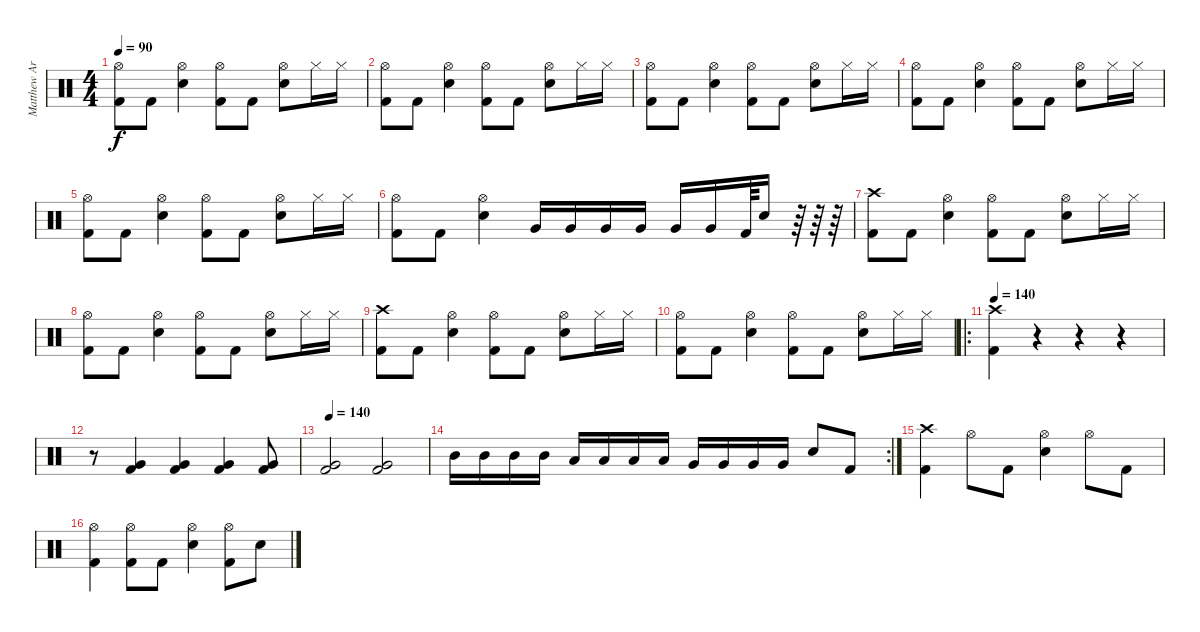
\track ("Matthew Archer" "Matthew Ar") {instrument percussion}
\staff {score}
\articulation defaults
\ts (4 4)
\tempo 90
\clef neutral
\ks c
("Hi-Hat (open)" "Kick (hit) 2").8{dy f} "Kick (hit) 2".8 ("Hi-Hat (open)" "Electric Snare (hit)").4 ("Hi-Hat (open)" "Kick (hit) 2").8 "Kick (hit) 2".8 ("Hi-Hat (open)" "Electric Snare (hit)").8 "Hi-Hat (closed)".16 "Hi-Hat (closed)".16 |
("Hi-Hat (open)" "Kick (hit) 2").8 "Kick (hit) 2".8 ("Hi-Hat (open)" "Electric Snare (hit)").4 ("Hi-Hat (open)" "Kick (hit) 2").8 "Kick (hit) 2".8 ("Hi-Hat (open)" "Electric Snare (hit)").8 "Hi-Hat (closed)".16 "Hi-Hat (closed)".16 |
("Hi-Hat (open)" "Kick (hit) 2").8 "Kick (hit) 2".8 ("Hi-Hat (open)" "Electric Snare (hit)").4 ("Hi-Hat (open)" "Kick (hit) 2").8 "Kick (hit) 2".8 ("Hi-Hat (open)" "Electric Snare (hit)").8 "Hi-Hat (closed)".16 "Hi-Hat (closed)".16 |
("Hi-Hat (open)" "Kick (hit) 2").8 "Kick (hit) 2".8 ("Hi-Hat (open)" "Electric Snare (hit)").4 ("Hi-Hat (open)" "Kick (hit) 2").8 "Kick (hit) 2".8 ("Hi-Hat (open)" "Electric Snare (hit)").8 "Hi-Hat (closed)".16 "Hi-Hat (closed)".16 |
("Hi-Hat (open)" "Kick (hit) 2").8 "Kick (hit) 2".8 ("Hi-Hat (open)" "Electric Snare (hit)").4 ("Hi-Hat (open)" "Kick (hit) 2").8 "Kick (hit) 2".8 ("Hi-Hat (open)" "Electric Snare (hit)").8 "Hi-Hat (closed)".16 "Hi-Hat (closed)".16 |
("Hi-Hat (open)" "Kick (hit) 2").8 "Kick (hit) 2".8 ("Hi-Hat (open)" "Electric Snare (hit)").4 "Very Low Tom (hit)".16 "Very Low Tom (hit)".16 "Very Low Tom (hit)".16 "Very Low Tom (hit)".16 "Very Low Tom (hit)".16 "Very Low Tom (hit)".16 "Kick (hit) 2".64 "Electric Snare (hit)".16 r.64 r.64 r.64 |
("Crash high (hit)" "Kick (hit) 2").8 "Kick (hit) 2".8 ("Hi-Hat (open)" "Electric Snare (hit)").4 ("Hi-Hat (open)" "Kick (hit) 2").8 "Kick (hit) 2".8 ("Hi-Hat (open)" "Electric Snare (hit)").8 "Hi-Hat (closed)".16 "Hi-Hat (closed)".16 |
("Hi-Hat (open)" "Kick (hit) 2").8 "Kick (hit) 2".8 ("Hi-Hat (open)" "Electric Snare (hit)").4 ("Hi-Hat (open)" "Kick (hit) 2").8 "Kick (hit) 2".8 ("Hi-Hat (open)" "Electric Snare (hit)").8 "Hi-Hat (closed)".16 "Hi-Hat (closed)".16 |
("Crash high (hit)" "Kick (hit) 2").8 "Kick (hit) 2".8 ("Hi-Hat (open)" "Electric Snare (hit)").4 ("Hi-Hat (open)" "Kick (hit) 2").8 "Kick (hit) 2".8 ("Hi-Hat (open)" "Electric Snare (hit)").8 "Hi-Hat (closed)".16 "Hi-Hat (closed)".16 |
("Hi-Hat (open)" "Kick (hit) 2").8 "Kick (hit) 2".8 ("Hi-Hat (open)" "Electric Snare (hit)").4 ("Hi-Hat (open)" "Kick (hit) 2").8 "Kick (hit) 2".8 ("Hi-Hat (open)" "Electric Snare (hit)").8 "Hi-Hat (closed)".16 "Hi-Hat (closed)".16 |
\ro
\tempo 140
("Crash high (hit)" "Kick (hit) 2").4 r.4 r.4 r.4 |
r.8 ("Very Low Tom (hit)" "Kick (hit) 2").4 ("Very Low Tom (hit)" "Kick (hit) 2").4 ("Very Low Tom (hit)" "Kick (hit) 2").4 ("Very Low Tom (hit)" "Kick (hit) 2").8 |
\tempo 140
("Very Low Tom (hit)" "Kick (hit) 2").2 ("Very Low Tom (hit)" "Kick (hit) 2").2 |
\rc 2 "Mid Tom (hit)".16 "Mid Tom (hit)".16 "Mid Tom (hit)".16 "Mid Tom (hit)".16 "Low Tom (hit)".16 "Low Tom (hit)".16 "Low Tom (hit)".16 "Low Tom (hit)".16 "Very Low Tom (hit)".16 "Very Low Tom (hit)".16 "Very Low Tom (hit)".16 "Very Low Tom (hit)".16 "Electric Snare (hit)".8 "Kick (hit) 2".8
|
("Kick (hit) 2" "Crash high (hit)").4 "Hi-Hat (open)".8 "Kick (hit) 2".8 ("Hi-Hat (open)" "Electric Snare (hit)").4 "Hi-Hat (open)".8 "Kick (hit) 2".8 |
("Hi-Hat (open)" "Kick (hit) 2").4 ("Hi-Hat (open)" "Kick (hit) 2").8 "Kick (hit) 2".8 ("Hi-Hat (open)" "Electric Snare (hit)").4 ("Hi-Hat (open)" "Kick (hit) 2").8 "Electric Snare (hit)".8
